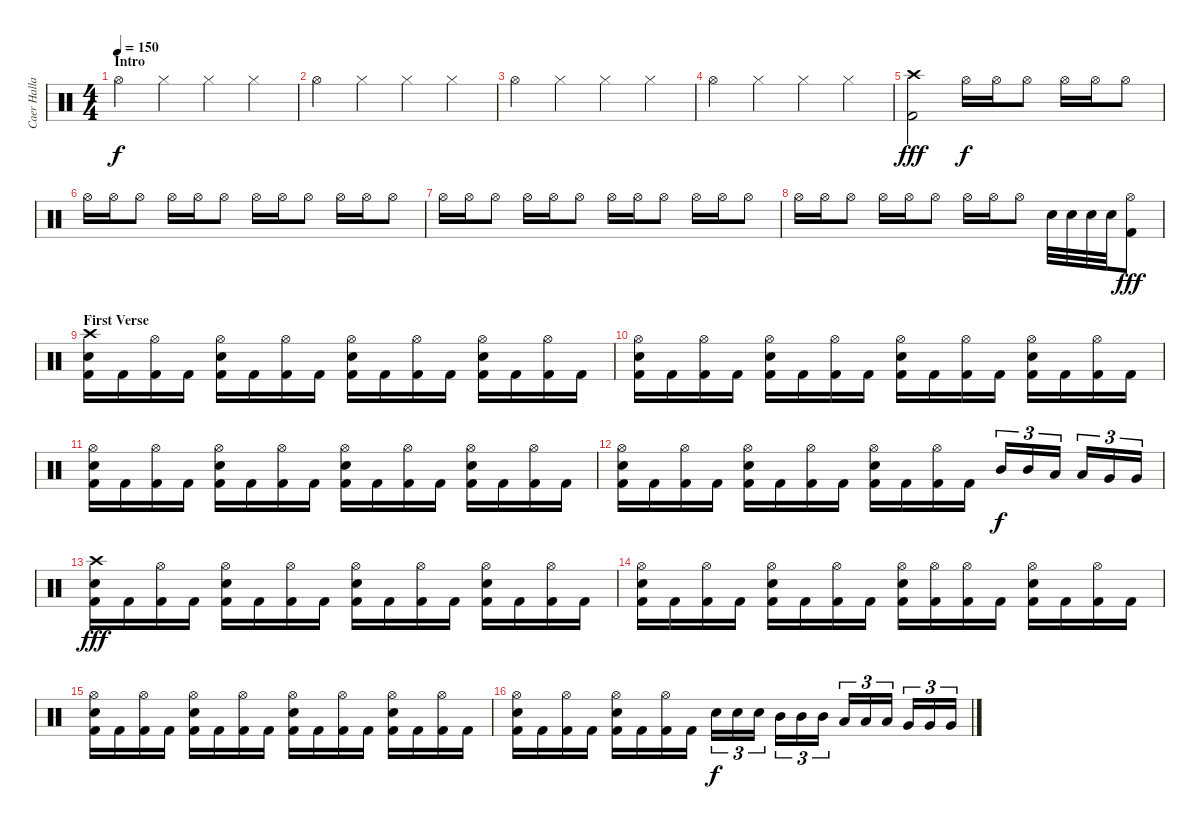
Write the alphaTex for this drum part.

\track ("Caer Hallam Generis" "Caer Halla") {instrument percussion}
\staff {score}
\articulation defaults
\ts (4 4)
\section ("" "Intro")
\tempo 150
\clef neutral
\ks c "Hi-Hat (open)".4{dy f} "Hi-Hat (closed)".4 "Hi-Hat (closed)".4 "Hi-Hat (closed)".4
|
"Hi-Hat (open)".4 "Hi-Hat (closed)".4 "Hi-Hat (closed)".4 "Hi-Hat (closed)".4 |
"Hi-Hat (open)".4 "Hi-Hat (closed)".4 "Hi-Hat (closed)".4 "Hi-Hat (closed)".4 |
"Hi-Hat (open)".4 "Hi-Hat (closed)".4 "Hi-Hat (closed)".4 "Hi-Hat (closed)".4 |
("Crash high (hit)" "Kick (hit) 2").2{dy fff} "Hi-Hat (open)".16{dy f} "Hi-Hat (open)".16 "Hi-Hat (open)".8 "Hi-Hat (open)".16 "Hi-Hat (open)".16 "Hi-Hat (open)".8 |
"Hi-Hat (open)".16 "Hi-Hat (open)".16 "Hi-Hat (open)".8 "Hi-Hat (open)".16 "Hi-Hat (open)".16 "Hi-Hat (open)".8 "Hi-Hat (open)".16 "Hi-Hat (open)".16 "Hi-Hat (open)".8 "Hi-Hat (open)".16 "Hi-Hat (open)".16 "Hi-Hat (open)".8 |
"Hi-Hat (open)".16 "Hi-Hat (open)".16 "Hi-Hat (open)".8 "Hi-Hat (open)".16 "Hi-Hat (open)".16 "Hi-Hat (open)".8 "Hi-Hat (open)".16 "Hi-Hat (open)".16 "Hi-Hat (open)".8 "Hi-Hat (open)".16 "Hi-Hat (open)".16 "Hi-Hat (open)".8 |
"Hi-Hat (open)".16 "Hi-Hat (open)".16 "Hi-Hat (open)".8 "Hi-Hat (open)".16 "Hi-Hat (open)".16 "Hi-Hat (open)".8 "Hi-Hat (open)".16 "Hi-Hat (open)".16 "Hi-Hat (open)".8 "Snare (hit) 2".32 "Snare (hit) 2".32 "Snare (hit) 2".32 "Snare (hit) 2".32 ("Hi-Hat (open)" "Kick (hit) 2").8{dy fff} |
\section ("" "First Verse")
("Crash high (hit)" "Snare (hit) 2" "Kick (hit) 2").16 "Kick (hit) 2".16 ("Hi-Hat (open)" "Kick (hit) 2").16 "Kick (hit) 2".16 ("Hi-Hat (open)" "Snare (hit) 2" "Kick (hit) 2").16 "Kick (hit) 2".16 ("Hi-Hat (open)" "Kick (hit) 2").16 "Kick (hit) 2".16 ("Hi-Hat (open)" "Snare (hit) 2" "Kick (hit) 2").16 "Kick (hit) 2".16 ("Hi-Hat (open)" "Kick (hit) 2").16 "Kick (hit) 2".16 ("Hi-Hat (open)" "Snare (hit) 2" "Kick (hit) 2").16 "Kick (hit) 2".16 ("Hi-Hat (open)" "Kick (hit) 2").16 "Kick (hit) 2".16 |
("Hi-Hat (open)" "Snare (hit) 2" "Kick (hit) 2").16 "Kick (hit) 2".16 ("Hi-Hat (open)" "Kick (hit) 2").16 "Kick (hit) 2".16 ("Hi-Hat (open)" "Snare (hit) 2" "Kick (hit) 2").16 "Kick (hit) 2".16 ("Hi-Hat (open)" "Kick (hit) 2").16 "Kick (hit) 2".16 ("Hi-Hat (open)" "Snare (hit) 2" "Kick (hit) 2").16 "Kick (hit) 2".16 ("Hi-Hat (open)" "Kick (hit) 2").16 "Kick (hit) 2".16 ("Hi-Hat (open)" "Snare (hit) 2" "Kick (hit) 2").16 "Kick (hit) 2".16 ("Hi-Hat (open)" "Kick (hit) 2").16 "Kick (hit) 2".16 |
("Hi-Hat (open)" "Snare (hit) 2" "Kick (hit) 2").16 "Kick (hit) 2".16 ("Hi-Hat (open)" "Kick (hit) 2").16 "Kick (hit) 2".16 ("Hi-Hat (open)" "Snare (hit) 2" "Kick (hit) 2").16 "Kick (hit) 2".16 ("Hi-Hat (open)" "Kick (hit) 2").16 "Kick (hit) 2".16 ("Hi-Hat (open)" "Snare (hit) 2" "Kick (hit) 2").16 "Kick (hit) 2".16 ("Hi-Hat (open)" "Kick (hit) 2").16 "Kick (hit) 2".16 ("Hi-Hat (open)" "Snare (hit) 2" "Kick (hit) 2").16 "Kick (hit) 2".16 ("Hi-Hat (open)" "Kick (hit) 2").16 "Kick (hit) 2".16 |
("Hi-Hat (open)" "Snare (hit) 2" "Kick (hit) 2").16 "Kick (hit) 2".16 ("Hi-Hat (open)" "Kick (hit) 2").16 "Kick (hit) 2".16 ("Hi-Hat (open)" "Snare (hit) 2" "Kick (hit) 2").16 "Kick (hit) 2".16 ("Hi-Hat (open)" "Kick (hit) 2").16 "Kick (hit) 2".16 ("Hi-Hat (open)" "Snare (hit) 2" "Kick (hit) 2").16 "Kick (hit) 2".16 ("Hi-Hat (open)" "Kick (hit) 2").16 "Kick (hit) 2".16 "Mid Tom (hit)".16{tu (3 2) dy f} "Mid Tom (hit)".16{tu (3 2)} "Low Tom (hit)".16{tu (3 2)} "Low Tom (hit)".16{tu (3 2)} "Very Low Tom (hit)".16{tu (3 2)} "Very Low Tom (hit)".16{tu (3 2)} |
("Crash high (hit)" "Snare (hit) 2" "Kick (hit) 2").16{dy fff} "Kick (hit) 2".16 ("Hi-Hat (open)" "Kick (hit) 2").16 "Kick (hit) 2".16 ("Hi-Hat (open)" "Snare (hit) 2" "Kick (hit) 2").16 "Kick (hit) 2".16 ("Hi-Hat (open)" "Kick (hit) 2").16 "Kick (hit) 2".16 ("Hi-Hat (open)" "Snare (hit) 2" "Kick (hit) 2").16 "Kick (hit) 2".16 ("Hi-Hat (open)" "Kick (hit) 2").16 "Kick (hit) 2".16 ("Hi-Hat (open)" "Snare (hit) 2" "Kick (hit) 2").16 "Kick (hit) 2".16 ("Hi-Hat (open)" "Kick (hit) 2").16 "Kick (hit) 2".16 |
("Hi-Hat (open)" "Snare (hit) 2" "Kick (hit) 2").16 "Kick (hit) 2".16 ("Hi-Hat (open)" "Kick (hit) 2").16 "Kick (hit) 2".16 ("Hi-Hat (open)" "Snare (hit) 2" "Kick (hit) 2").16 "Kick (hit) 2".16 ("Hi-Hat (open)" "Kick (hit) 2").16 "Kick (hit) 2".16 ("Hi-Hat (open)" "Snare (hit) 2" "Kick (hit) 2").16 ("Hi-Hat (open)" "Kick (hit) 2").16 ("Hi-Hat (open)" "Kick (hit) 2").16 "Kick (hit) 2".16 ("Hi-Hat (open)" "Snare (hit) 2" "Kick (hit) 2").16 "Kick (hit) 2".16 ("Hi-Hat (open)" "Kick (hit) 2").16 "Kick (hit) 2".16 |
("Hi-Hat (open)" "Snare (hit) 2" "Kick (hit) 2").16 "Kick (hit) 2".16 ("Hi-Hat (open)" "Kick (hit) 2").16 "Kick (hit) 2".16 ("Hi-Hat (open)" "Snare (hit) 2" "Kick (hit) 2").16 "Kick (hit) 2".16 ("Hi-Hat (open)" "Kick (hit) 2").16 "Kick (hit) 2".16 ("Hi-Hat (open)" "Snare (hit) 2" "Kick (hit) 2").16 "Kick (hit) 2".16 ("Hi-Hat (open)" "Kick (hit) 2").16 "Kick (hit) 2".16 ("Hi-Hat (open)" "Snare (hit) 2" "Kick (hit) 2").16 "Kick (hit) 2".16 ("Hi-Hat (open)" "Kick (hit) 2").16 "Kick (hit) 2".16 |
("Hi-Hat (open)" "Snare (hit) 2" "Kick (hit) 2").16 "Kick (hit) 2".16 ("Hi-Hat (open)" "Kick (hit) 2").16 "Kick (hit) 2".16 ("Hi-Hat (open)" "Snare (hit) 2" "Kick (hit) 2").16 "Kick (hit) 2".16 ("Hi-Hat (open)" "Kick (hit) 2").16 "Kick (hit) 2".16 "Snare (hit) 2".16{tu (3 2) dy f} "Snare (hit) 2".16{tu (3 2)} "Snare (hit) 2".16{tu (3 2)} "Mid Tom (hit)".16{tu (3 2)} "Mid Tom (hit)".16{tu (3 2)} "Mid Tom (hit)".16{tu (3 2)} "Low Tom (hit)".16{tu (3 2)} "Low Tom (hit)".16{tu (3 2)} "Low Tom (hit)".16{tu (3 2)} "Very Low Tom (hit)".16{tu (3 2)} "Very Low Tom (hit)".16{tu (3 2)} "Very Low Tom (hit)".16{tu (3 2)}
